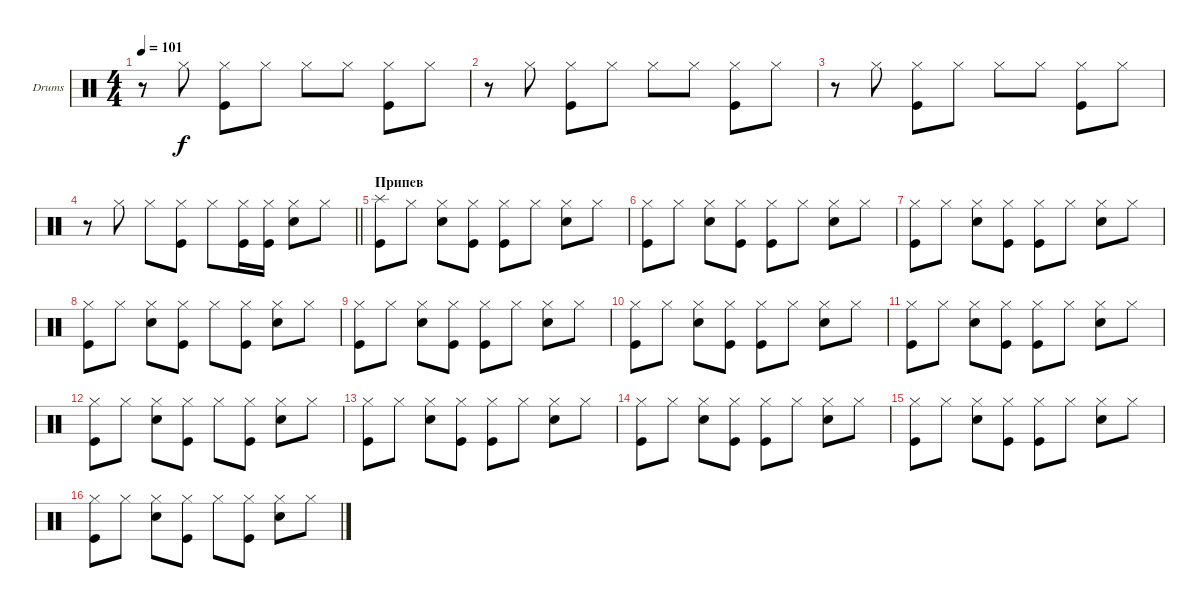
\bracketExtendMode groupsimilarinstruments
\firstSystemTrackNameOrientation horizontal
\otherSystemsTrackNameOrientation horizontal
\track ("Г.Гурьянов (ударные)" "Drums") {instrument percussion}
\staff {score}
\articulation defaults
\ts (4 4)
\tempo 101
\clef neutral
\ks c
r.8{dy f} "Hi-Hat (closed)".8 ("Hi-Hat (closed)" "Kick (hit)").8 "Hi-Hat (closed)".8 "Hi-Hat (closed)".8 "Hi-Hat (closed)".8 ("Hi-Hat (closed)" "Kick (hit)").8 "Hi-Hat (closed)".8 |
r.8 "Hi-Hat (closed)".8 ("Hi-Hat (closed)" "Kick (hit)").8 "Hi-Hat (closed)".8 "Hi-Hat (closed)".8 "Hi-Hat (closed)".8 ("Hi-Hat (closed)" "Kick (hit)").8 "Hi-Hat (closed)".8 |
r.8 "Hi-Hat (closed)".8 ("Hi-Hat (closed)" "Kick (hit)").8 "Hi-Hat (closed)".8 "Hi-Hat (closed)".8 "Hi-Hat (closed)".8 ("Hi-Hat (closed)" "Kick (hit)").8 "Hi-Hat (closed)".8 |
\barLineRight lightlight
r.8 "Hi-Hat (closed)".8 "Hi-Hat (closed)".8 ("Hi-Hat (closed)" "Kick (hit)").8 "Hi-Hat (closed)".8 ("Hi-Hat (closed)" "Kick (hit)").16 ("Hi-Hat (closed)" "Kick (hit)").16 ("Hi-Hat (closed)" "Snare (hit) 2").8 "Hi-Hat (closed)".8 |
\section ("" "Припев")
("Splash (hit)" "Kick (hit)").8 "Hi-Hat (closed)".8 ("Hi-Hat (closed)" "Snare (hit) 2").8 ("Hi-Hat (closed)" "Kick (hit)").8 ("Hi-Hat (closed)" "Kick (hit)").8 "Hi-Hat (closed)".8 ("Hi-Hat (closed)" "Snare (hit) 2").8 "Hi-Hat (closed)".8 |
("Hi-Hat (closed)" "Kick (hit)").8 "Hi-Hat (closed)".8 ("Hi-Hat (closed)" "Snare (hit) 2").8 ("Hi-Hat (closed)" "Kick (hit)").8 ("Hi-Hat (closed)" "Kick (hit)").8 "Hi-Hat (closed)".8 ("Hi-Hat (closed)" "Snare (hit) 2").8 "Hi-Hat (closed)".8 |
("Hi-Hat (closed)" "Kick (hit)").8 "Hi-Hat (closed)".8 ("Hi-Hat (closed)" "Snare (hit) 2").8 ("Hi-Hat (closed)" "Kick (hit)").8 ("Hi-Hat (closed)" "Kick (hit)").8 "Hi-Hat (closed)".8 ("Hi-Hat (closed)" "Snare (hit) 2").8 "Hi-Hat (closed)".8 |
("Hi-Hat (closed)" "Kick (hit)").8 "Hi-Hat (closed)".8 ("Hi-Hat (closed)" "Snare (hit) 2").8 ("Hi-Hat (closed)" "Kick (hit)").8 "Hi-Hat (closed)".8 ("Hi-Hat (closed)" "Kick (hit)").8 ("Hi-Hat (closed)" "Snare (hit) 2").8 "Hi-Hat (closed)".8 |
("Hi-Hat (closed)" "Kick (hit)").8 "Hi-Hat (closed)".8 ("Hi-Hat (closed)" "Snare (hit) 2").8 ("Hi-Hat (closed)" "Kick (hit)").8 ("Hi-Hat (closed)" "Kick (hit)").8 "Hi-Hat (closed)".8 ("Hi-Hat (closed)" "Snare (hit) 2").8 "Hi-Hat (closed)".8 |
("Hi-Hat (closed)" "Kick (hit)").8 "Hi-Hat (closed)".8 ("Hi-Hat (closed)" "Snare (hit) 2").8 ("Hi-Hat (closed)" "Kick (hit)").8 ("Hi-Hat (closed)" "Kick (hit)").8 "Hi-Hat (closed)".8 ("Hi-Hat (closed)" "Snare (hit) 2").8 "Hi-Hat (closed)".8 |
("Hi-Hat (closed)" "Kick (hit)").8 "Hi-Hat (closed)".8 ("Hi-Hat (closed)" "Snare (hit) 2").8 ("Hi-Hat (closed)" "Kick (hit)").8 ("Hi-Hat (closed)" "Kick (hit)").8 "Hi-Hat (closed)".8 ("Hi-Hat (closed)" "Snare (hit) 2").8 "Hi-Hat (closed)".8 |
("Hi-Hat (closed)" "Kick (hit)").8 "Hi-Hat (closed)".8 ("Hi-Hat (closed)" "Snare (hit) 2").8 ("Hi-Hat (closed)" "Kick (hit)").8 "Hi-Hat (closed)".8 ("Hi-Hat (closed)" "Kick (hit)").8 ("Hi-Hat (closed)" "Snare (hit) 2").8 "Hi-Hat (closed)".8 |
("Hi-Hat (closed)" "Kick (hit)").8 "Hi-Hat (closed)".8 ("Hi-Hat (closed)" "Snare (hit) 2").8 ("Hi-Hat (closed)" "Kick (hit)").8 ("Hi-Hat (closed)" "Kick (hit)").8 "Hi-Hat (closed)".8 ("Hi-Hat (closed)" "Snare (hit) 2").8 "Hi-Hat (closed)".8 |
("Hi-Hat (closed)" "Kick (hit)").8 "Hi-Hat (closed)".8 ("Hi-Hat (closed)" "Snare (hit) 2").8 ("Hi-Hat (closed)" "Kick (hit)").8 ("Hi-Hat (closed)" "Kick (hit)").8 "Hi-Hat (closed)".8 ("Hi-Hat (closed)" "Snare (hit) 2").8 "Hi-Hat (closed)".8 |
("Hi-Hat (closed)" "Kick (hit)").8 "Hi-Hat (closed)".8 ("Hi-Hat (closed)" "Snare (hit) 2").8 ("Hi-Hat (closed)" "Kick (hit)").8 ("Hi-Hat (closed)" "Kick (hit)").8 "Hi-Hat (closed)".8 ("Hi-Hat (closed)" "Snare (hit) 2").8 "Hi-Hat (closed)".8 |
("Hi-Hat (closed)" "Kick (hit)").8 "Hi-Hat (closed)".8 ("Hi-Hat (closed)" "Snare (hit) 2").8 ("Hi-Hat (closed)" "Kick (hit)").8 "Hi-Hat (closed)".8 ("Hi-Hat (closed)" "Kick (hit)").8 ("Hi-Hat (closed)" "Snare (hit) 2").8 "Hi-Hat (closed)".8
